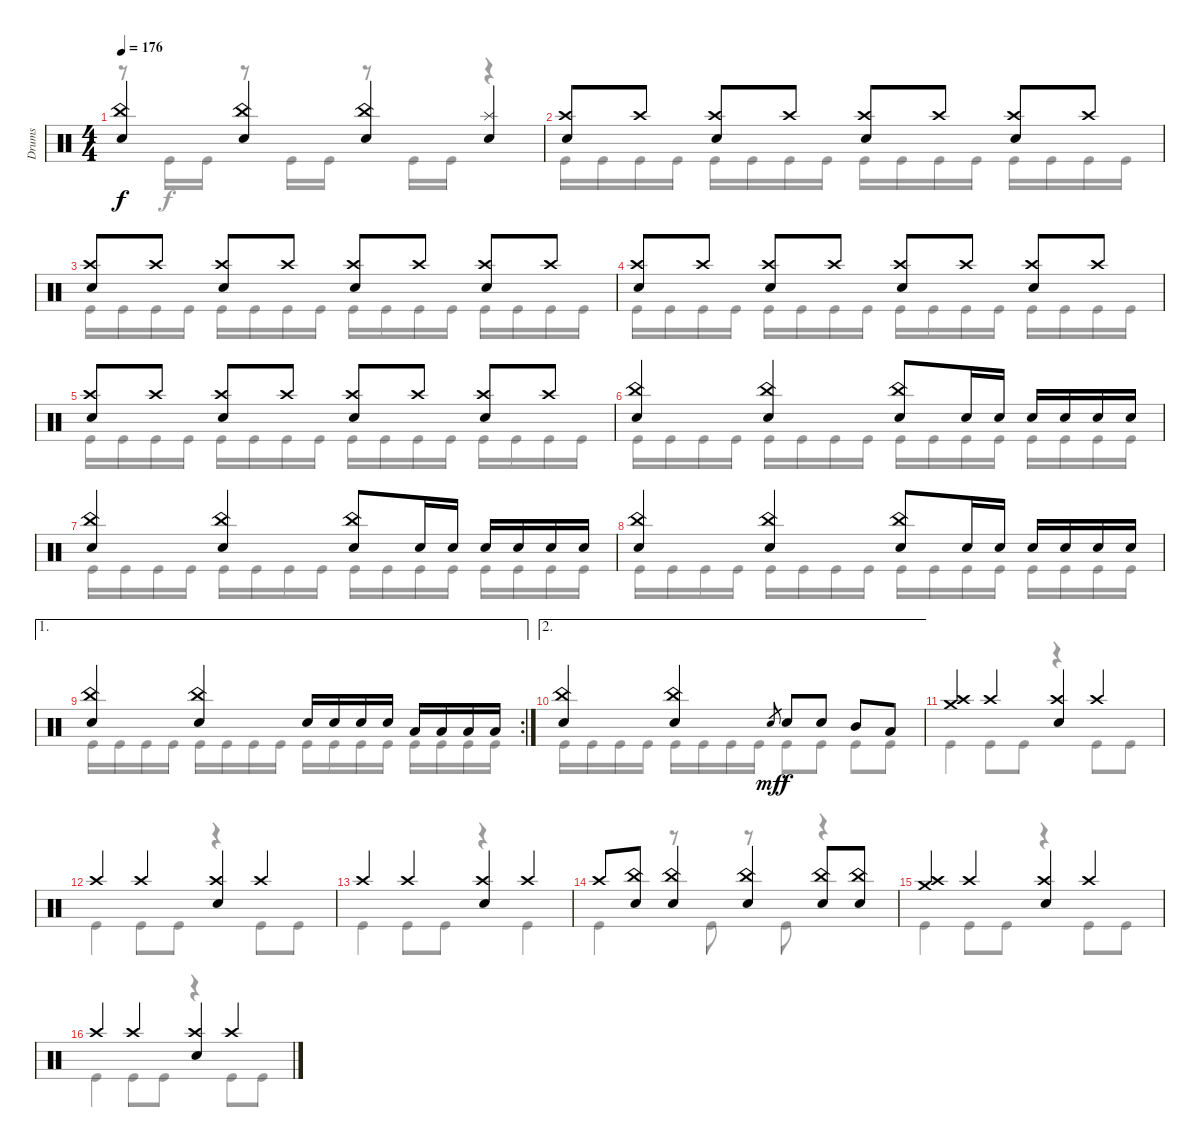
\track ("Drums" "Drums") {instrument percussion}
\staff {score}
\articulation defaults
\voice
\ts (4 4)
\tempo 176
\clef neutral
\ks c
("Snare (hit) 2" "China (hit)").4{dy f} ("Snare (hit) 2" "China (hit)").4 ("Snare (hit) 2" "China (hit)").4 ("Snare (hit) 2" "Splash (hit)").4 |
("Crash high (hit)" "Snare (hit) 2").8 "Crash high (hit)".8 ("Crash high (hit)" "Snare (hit) 2").8 "Crash high (hit)".8 ("Crash high (hit)" "Snare (hit) 2").8 "Crash high (hit)".8 ("Crash high (hit)" "Snare (hit) 2").8 "Crash high (hit)".8 |
("Crash high (hit)" "Snare (hit) 2").8 "Crash high (hit)".8 ("Crash high (hit)" "Snare (hit) 2").8 "Crash high (hit)".8 ("Crash high (hit)" "Snare (hit) 2").8 "Crash high (hit)".8 ("Crash high (hit)" "Snare (hit) 2").8 "Crash high (hit)".8 |
("Crash high (hit)" "Snare (hit) 2").8 "Crash high (hit)".8 ("Crash high (hit)" "Snare (hit) 2").8 "Crash high (hit)".8 ("Crash high (hit)" "Snare (hit) 2").8 "Crash high (hit)".8 ("Crash high (hit)" "Snare (hit) 2").8 "Crash high (hit)".8 |
("Crash high (hit)" "Snare (hit) 2").8 "Crash high (hit)".8 ("Crash high (hit)" "Snare (hit) 2").8 "Crash high (hit)".8 ("Crash high (hit)" "Snare (hit) 2").8 "Crash high (hit)".8 ("Crash high (hit)" "Snare (hit) 2").8 "Crash high (hit)".8 |
("Snare (hit) 2" "China (hit)").4 ("Snare (hit) 2" "China (hit)").4 ("Snare (hit) 2" "China (hit)").8 "Snare (hit) 2".16 "Snare (hit) 2".16 "Snare (hit) 2".16 "Snare (hit) 2".16 "Snare (hit) 2".16 "Snare (hit) 2".16 |
("Snare (hit) 2" "China (hit)").4 ("Snare (hit) 2" "China (hit)").4 ("Snare (hit) 2" "China (hit)").8 "Snare (hit) 2".16 "Snare (hit) 2".16 "Snare (hit) 2".16 "Snare (hit) 2".16 "Snare (hit) 2".16 "Snare (hit) 2".16 |
("Snare (hit) 2" "China (hit)").4 ("Snare (hit) 2" "China (hit)").4 ("Snare (hit) 2" "China (hit)").8 "Snare (hit) 2".16 "Snare (hit) 2".16 "Snare (hit) 2".16 "Snare (hit) 2".16 "Snare (hit) 2".16 "Snare (hit) 2".16 |
\ae 1
\rc 2
("Snare (hit) 2" "China (hit)").4 ("Snare (hit) 2" "China (hit)").4 "Snare (hit) 2".16 "Snare (hit) 2".16 "Snare (hit) 2".16 "Snare (hit) 2".16 "Low Tom (hit)".16 "Low Tom (hit)".16 "Low Tom (hit)".16 "Low Tom (hit)".16 |
\ae 2
("Snare (hit) 2" "China (hit)").4 ("Snare (hit) 2" "China (hit)").4 "Snare (hit)".8{gr dy mf} "Snare (hit) 2".8{dy f} "Snare (hit) 2".8 "Mid Tom (hit)".8 "Low Tom (hit)".8 |
("Crash medium (hit)" "Crash high (hit)").4 "Crash high (hit)".4 ("Crash high (hit)" "Snare (hit) 2").4 "Crash high (hit)".4 |
"Crash high (hit)".4 "Crash high (hit)".4 ("Crash high (hit)" "Snare (hit) 2").4 "Crash high (hit)".4 |
"Crash high (hit)".4 "Crash high (hit)".4 ("Crash high (hit)" "Snare (hit) 2").4 "Crash high (hit)".4 |
"Crash high (hit)".8 ("Snare (hit) 2" "China (hit)").8 ("Snare (hit) 2" "China (hit)").4 ("Snare (hit) 2" "China (hit)").4 ("Snare (hit) 2" "China (hit)").8 ("Snare (hit) 2" "China (hit)").8 |
("Crash medium (hit)" "Crash high (hit)").4 "Crash high (hit)".4 ("Crash high (hit)" "Snare (hit) 2").4 "Crash high (hit)".4 |
"Crash high (hit)".4 "Crash high (hit)".4 ("Crash high (hit)" "Snare (hit) 2").4 "Crash high (hit)".4
\voice
\clef neutral
\ottava regular
\simile none
\ks c
r.8{dy f} "Kick (hit)".16 "Kick (hit)".16 r.8 "Kick (hit)".16 "Kick (hit)".16 r.8 "Kick (hit)".16 "Kick (hit)".16 r.4 |
"Kick (hit)".16 "Kick (hit)".16 "Kick (hit)".16 "Kick (hit)".16 "Kick (hit)".16 "Kick (hit)".16 "Kick (hit)".16 "Kick (hit)".16 "Kick (hit)".16 "Kick (hit)".16 "Kick (hit)".16 "Kick (hit)".16 "Kick (hit)".16 "Kick (hit)".16 "Kick (hit)".16 "Kick (hit)".16 |
"Kick (hit)".16 "Kick (hit)".16 "Kick (hit)".16 "Kick (hit)".16 "Kick (hit)".16 "Kick (hit)".16 "Kick (hit)".16 "Kick (hit)".16 "Kick (hit)".16 "Kick (hit)".16 "Kick (hit)".16 "Kick (hit)".16 "Kick (hit)".16 "Kick (hit)".16 "Kick (hit)".16 "Kick (hit)".16 |
"Kick (hit)".16 "Kick (hit)".16 "Kick (hit)".16 "Kick (hit)".16 "Kick (hit)".16 "Kick (hit)".16 "Kick (hit)".16 "Kick (hit)".16 "Kick (hit)".16 "Kick (hit)".16 "Kick (hit)".16 "Kick (hit)".16 "Kick (hit)".16 "Kick (hit)".16 "Kick (hit)".16 "Kick (hit)".16 |
"Kick (hit)".16 "Kick (hit)".16 "Kick (hit)".16 "Kick (hit)".16 "Kick (hit)".16 "Kick (hit)".16 "Kick (hit)".16 "Kick (hit)".16 "Kick (hit)".16 "Kick (hit)".16 "Kick (hit)".16 "Kick (hit)".16 "Kick (hit)".16 "Kick (hit)".16 "Kick (hit)".16 "Kick (hit)".16 |
"Kick (hit)".16 "Kick (hit)".16 "Kick (hit)".16 "Kick (hit)".16 "Kick (hit)".16 "Kick (hit)".16 "Kick (hit)".16 "Kick (hit)".16 "Kick (hit)".16 "Kick (hit)".16 "Kick (hit)".16 "Kick (hit)".16 "Kick (hit)".16 "Kick (hit)".16 "Kick (hit)".16 "Kick (hit)".16 |
"Kick (hit)".16 "Kick (hit)".16 "Kick (hit)".16 "Kick (hit)".16 "Kick (hit)".16 "Kick (hit)".16 "Kick (hit)".16 "Kick (hit)".16 "Kick (hit)".16 "Kick (hit)".16 "Kick (hit)".16 "Kick (hit)".16 "Kick (hit)".16 "Kick (hit)".16 "Kick (hit)".16 "Kick (hit)".16 |
"Kick (hit)".16 "Kick (hit)".16 "Kick (hit)".16 "Kick (hit)".16 "Kick (hit)".16 "Kick (hit)".16 "Kick (hit)".16 "Kick (hit)".16 "Kick (hit)".16 "Kick (hit)".16 "Kick (hit)".16 "Kick (hit)".16 "Kick (hit)".16 "Kick (hit)".16 "Kick (hit)".16 "Kick (hit)".16 |
"Kick (hit)".16 "Kick (hit)".16 "Kick (hit)".16 "Kick (hit)".16 "Kick (hit)".16 "Kick (hit)".16 "Kick (hit)".16 "Kick (hit)".16 "Kick (hit)".16 "Kick (hit)".16 "Kick (hit)".16 "Kick (hit)".16 "Kick (hit)".16 "Kick (hit)".16 "Kick (hit)".16 "Kick (hit)".16 |
"Kick (hit)".16 "Kick (hit)".16 "Kick (hit)".16 "Kick (hit)".16 "Kick (hit)".16 "Kick (hit)".16 "Kick (hit)".16 "Kick (hit)".16 "Kick (hit)".8 "Kick (hit)".8 "Kick (hit)".8 "Kick (hit)".8 |
"Kick (hit)".4 "Kick (hit)".8 "Kick (hit)".8 r.4 "Kick (hit)".8 "Kick (hit)".8 |
"Kick (hit)".4 "Kick (hit)".8 "Kick (hit)".8 r.4 "Kick (hit)".8 "Kick (hit)".8 |
"Kick (hit)".4 "Kick (hit)".8 "Kick (hit)".8 r.4 "Kick (hit)".4 |
"Kick (hit)".4 r.8 "Kick (hit)".8 r.8 "Kick (hit)".8 r.4 |
"Kick (hit)".4 "Kick (hit)".8 "Kick (hit)".8 r.4 "Kick (hit)".8 "Kick (hit)".8 |
"Kick (hit)".4 "Kick (hit)".8 "Kick (hit)".8 r.4 "Kick (hit)".8 "Kick (hit)".8
